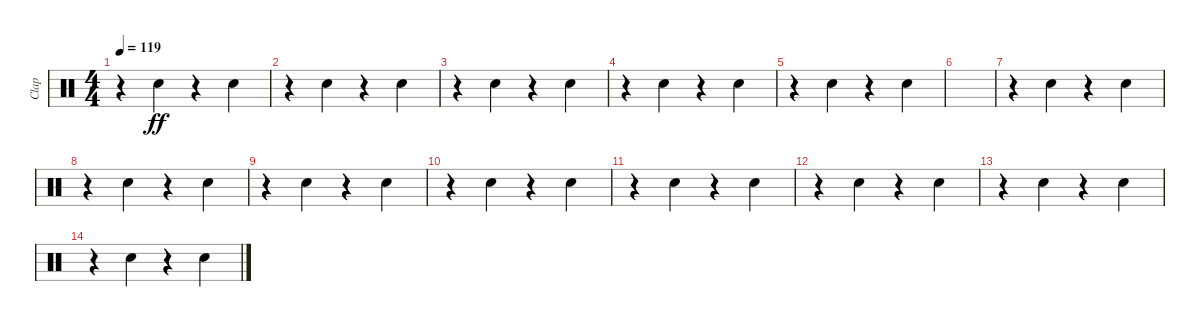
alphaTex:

\track ("Clap" "Clap") {instrument percussion}
\staff {score}
\articulation defaults
\ts (4 4)
\tempo 119
\clef neutral
\ks c
r.4{dy ff} "Hand Clap (hit)".4 r.4 "Hand Clap (hit)".4 |
r.4 "Hand Clap (hit)".4 r.4 "Hand Clap (hit)".4 |
r.4 "Hand Clap (hit)".4 r.4 "Hand Clap (hit)".4 |
r.4 "Hand Clap (hit)".4 r.4 "Hand Clap (hit)".4 |
r.4 "Hand Clap (hit)".4 r.4 "Hand Clap (hit)".4 |
|
r.4 "Hand Clap (hit)".4 r.4 "Hand Clap (hit)".4 |
r.4 "Hand Clap (hit)".4 r.4 "Hand Clap (hit)".4 |
r.4 "Hand Clap (hit)".4 r.4 "Hand Clap (hit)".4 |
r.4 "Hand Clap (hit)".4 r.4 "Hand Clap (hit)".4 |
r.4 "Hand Clap (hit)".4 r.4 "Hand Clap (hit)".4 |
r.4 "Hand Clap (hit)".4 r.4 "Hand Clap (hit)".4 |
r.4 "Hand Clap (hit)".4 r.4 "Hand Clap (hit)".4 |
r.4 "Hand Clap (hit)".4 r.4 "Hand Clap (hit)".4
